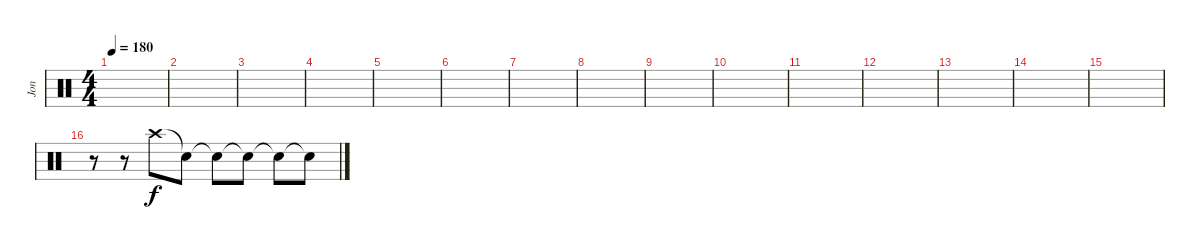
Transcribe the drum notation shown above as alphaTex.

\track ("Jon" "Jon") {instrument percussion}
\staff {score}
\articulation defaults
\ts (4 4)
\tempo 180
\clef neutral
\ks c
|
|
|
|
|
|
|
|
|
|
|
|
|
|
|
r.8 r.8{volume 0} "Crash high (hit)".8{volume 16} "Snare (hit)"{t}.8 "Snare (hit)"{t}.8 "Snare (hit)"{t}.8 "Snare (hit)"{t}.8 "Snare (hit)"{t}.8
